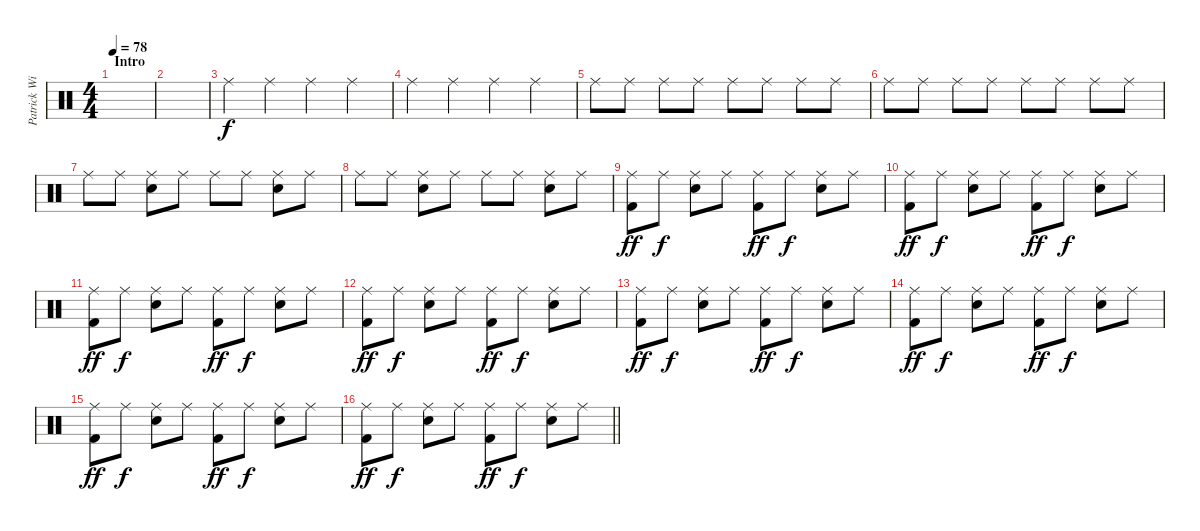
\track ("Patrick Wilson" "Patrick Wi") {instrument percussion}
\staff {score}
\articulation defaults
\ts (4 4)
\section ("" "Intro")
\tempo 78
\clef neutral
\ks c
|
|
"Ride (middle)".4 "Ride (middle)".4 "Ride (middle)".4 "Ride (middle)".4 |
"Ride (middle)".4 "Ride (middle)".4 "Ride (middle)".4 "Ride (middle)".4 |
"Ride (middle)".8 "Ride (middle)".8 "Ride (middle)".8 "Ride (middle)".8 "Ride (middle)".8 "Ride (middle)".8 "Ride (middle)".8 "Ride (middle)".8 |
"Ride (middle)".8 "Ride (middle)".8 "Ride (middle)".8 "Ride (middle)".8 "Ride (middle)".8 "Ride (middle)".8 "Ride (middle)".8 "Ride (middle)".8 |
"Ride (middle)".8 "Ride (middle)".8 ("Ride (middle)" "Snare (hit) 2").8 "Ride (middle)".8 "Ride (middle)".8 "Ride (middle)".8 ("Ride (middle)" "Snare (hit) 2").8 "Ride (middle)".8 |
"Ride (middle)".8 "Ride (middle)".8 ("Ride (middle)" "Snare (hit) 2").8 "Ride (middle)".8 "Ride (middle)".8 "Ride (middle)".8 ("Ride (middle)" "Snare (hit) 2").8 "Ride (middle)".8 |
("Ride (middle)" "Kick (hit) 2").8{dy ff} "Ride (middle)".8{dy f} ("Ride (middle)" "Snare (hit) 2").8 "Ride (middle)".8 ("Ride (middle)" "Kick (hit) 2").8{dy ff} "Ride (middle)".8{dy f} ("Ride (middle)" "Snare (hit) 2").8 "Ride (middle)".8 |
("Ride (middle)" "Kick (hit) 2").8{dy ff} "Ride (middle)".8{dy f} ("Ride (middle)" "Snare (hit) 2").8 "Ride (middle)".8 ("Ride (middle)" "Kick (hit) 2").8{dy ff} "Ride (middle)".8{dy f} ("Ride (middle)" "Snare (hit) 2").8 "Ride (middle)".8 |
("Ride (middle)" "Kick (hit) 2").8{dy ff} "Ride (middle)".8{dy f} ("Ride (middle)" "Snare (hit) 2").8 "Ride (middle)".8 ("Ride (middle)" "Kick (hit) 2").8{dy ff} "Ride (middle)".8{dy f} ("Ride (middle)" "Snare (hit) 2").8 "Ride (middle)".8 |
("Ride (middle)" "Kick (hit) 2").8{dy ff} "Ride (middle)".8{dy f} ("Ride (middle)" "Snare (hit) 2").8 "Ride (middle)".8 ("Ride (middle)" "Kick (hit) 2").8{dy ff} "Ride (middle)".8{dy f} ("Ride (middle)" "Snare (hit) 2").8 "Ride (middle)".8 |
("Ride (middle)" "Kick (hit) 2").8{dy ff} "Ride (middle)".8{dy f} ("Ride (middle)" "Snare (hit) 2").8 "Ride (middle)".8 ("Ride (middle)" "Kick (hit) 2").8{dy ff} "Ride (middle)".8{dy f} ("Ride (middle)" "Snare (hit) 2").8 "Ride (middle)".8 |
("Ride (middle)" "Kick (hit) 2").8{dy ff} "Ride (middle)".8{dy f} ("Ride (middle)" "Snare (hit) 2").8 "Ride (middle)".8 ("Ride (middle)" "Kick (hit) 2").8{dy ff} "Ride (middle)".8{dy f} ("Ride (middle)" "Snare (hit) 2").8 "Ride (middle)".8 |
("Ride (middle)" "Kick (hit) 2").8{dy ff} "Ride (middle)".8{dy f} ("Ride (middle)" "Snare (hit) 2").8 "Ride (middle)".8 ("Ride (middle)" "Kick (hit) 2").8{dy ff} "Ride (middle)".8{dy f} ("Ride (middle)" "Snare (hit) 2").8 "Ride (middle)".8 |
\barLineRight lightlight
("Ride (middle)" "Kick (hit) 2").8{dy ff} "Ride (middle)".8{dy f} ("Ride (middle)" "Snare (hit) 2").8 "Ride (middle)".8 ("Ride (middle)" "Kick (hit) 2").8{dy ff} "Ride (middle)".8{dy f} ("Ride (middle)" "Snare (hit) 2").8 "Ride (middle)".8
